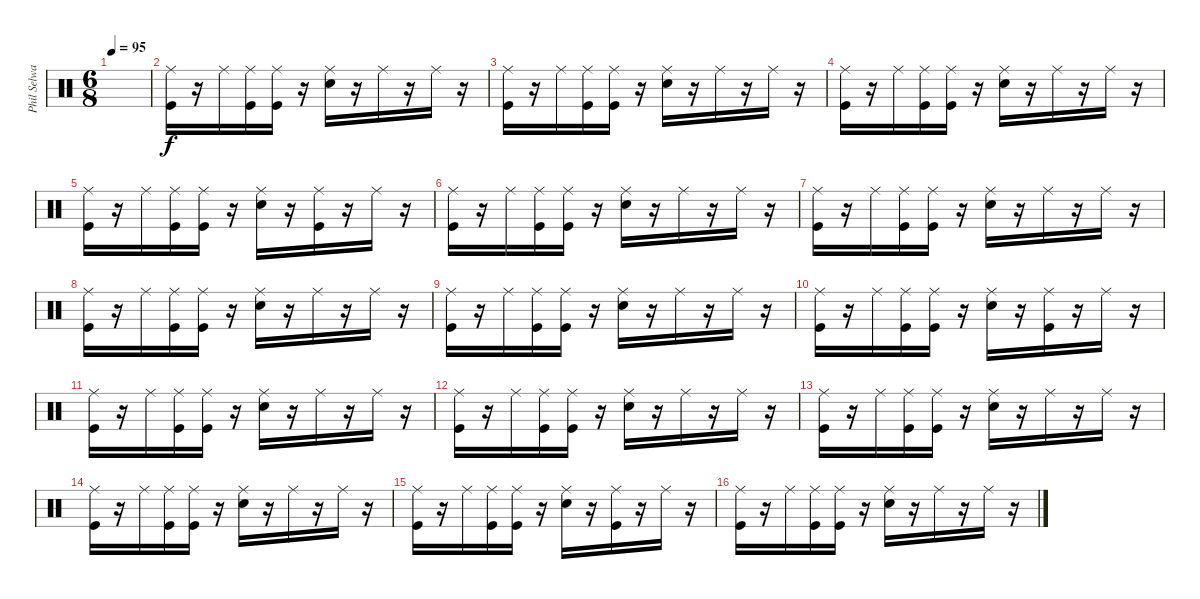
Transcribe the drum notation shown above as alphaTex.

\track ("Phil Selway (Percussions)" "Phil Selwa") {instrument percussion}
\staff {score}
\articulation defaults
\ts (6 8)
\tempo 95
\clef neutral
\ks c
|
("Ride (middle)" "Kick (hit)").16 r.16 "Ride (middle)".16 ("Ride (middle)" "Kick (hit)").16 ("Ride (middle)" "Kick (hit)").16 r.16 ("Ride (middle)" "Electric Snare (hit)").16 r.16 "Ride (middle)".16 r.16 "Ride (middle)".16 r.16 |
("Ride (middle)" "Kick (hit)").16 r.16 "Ride (middle)".16 ("Ride (middle)" "Kick (hit)").16 ("Ride (middle)" "Kick (hit)").16 r.16 ("Ride (middle)" "Electric Snare (hit)").16 r.16 "Ride (middle)".16 r.16 "Ride (middle)".16 r.16 |
("Ride (middle)" "Kick (hit)").16 r.16 "Ride (middle)".16 ("Ride (middle)" "Kick (hit)").16 ("Ride (middle)" "Kick (hit)").16 r.16 ("Ride (middle)" "Electric Snare (hit)").16 r.16 "Ride (middle)".16 r.16 "Ride (middle)".16 r.16 |
("Ride (middle)" "Kick (hit)").16 r.16 "Ride (middle)".16 ("Ride (middle)" "Kick (hit)").16 ("Ride (middle)" "Kick (hit)").16 r.16 ("Ride (middle)" "Electric Snare (hit)").16 r.16 ("Ride (middle)" "Kick (hit)").16 r.16 "Ride (middle)".16 r.16 |
("Ride (middle)" "Kick (hit)").16 r.16 "Ride (middle)".16 ("Ride (middle)" "Kick (hit)").16 ("Ride (middle)" "Kick (hit)").16 r.16 ("Ride (middle)" "Electric Snare (hit)").16 r.16 "Ride (middle)".16 r.16 "Ride (middle)".16 r.16 |
("Ride (middle)" "Kick (hit)").16 r.16 "Ride (middle)".16 ("Ride (middle)" "Kick (hit)").16 ("Ride (middle)" "Kick (hit)").16 r.16 ("Ride (middle)" "Electric Snare (hit)").16 r.16 "Ride (middle)".16 r.16 "Ride (middle)".16 r.16 |
("Ride (middle)" "Kick (hit)").16 r.16 "Ride (middle)".16 ("Ride (middle)" "Kick (hit)").16 ("Ride (middle)" "Kick (hit)").16 r.16 ("Ride (middle)" "Electric Snare (hit)").16 r.16 "Ride (middle)".16 r.16 "Ride (middle)".16 r.16 |
("Ride (middle)" "Kick (hit)").16 r.16 "Ride (middle)".16 ("Ride (middle)" "Kick (hit)").16 ("Ride (middle)" "Kick (hit)").16 r.16 ("Ride (middle)" "Electric Snare (hit)").16 r.16 "Ride (middle)".16 r.16 "Ride (middle)".16 r.16 |
("Ride (middle)" "Kick (hit)").16 r.16 "Ride (middle)".16 ("Ride (middle)" "Kick (hit)").16 ("Ride (middle)" "Kick (hit)").16 r.16 ("Ride (middle)" "Electric Snare (hit)").16 r.16 ("Ride (middle)" "Kick (hit)").16 r.16 "Ride (middle)".16 r.16 |
("Ride (middle)" "Kick (hit)").16 r.16 "Ride (middle)".16 ("Ride (middle)" "Kick (hit)").16 ("Ride (middle)" "Kick (hit)").16 r.16 ("Ride (middle)" "Electric Snare (hit)").16 r.16 "Ride (middle)".16 r.16 "Ride (middle)".16 r.16 |
("Ride (middle)" "Kick (hit)").16 r.16 "Ride (middle)".16 ("Ride (middle)" "Kick (hit)").16 ("Ride (middle)" "Kick (hit)").16 r.16 ("Ride (middle)" "Electric Snare (hit)").16 r.16 "Ride (middle)".16 r.16 "Ride (middle)".16 r.16 |
("Ride (middle)" "Kick (hit)").16 r.16 "Ride (middle)".16 ("Ride (middle)" "Kick (hit)").16 ("Ride (middle)" "Kick (hit)").16 r.16 ("Ride (middle)" "Electric Snare (hit)").16 r.16 "Ride (middle)".16 r.16 "Ride (middle)".16 r.16 |
("Ride (middle)" "Kick (hit)").16 r.16 "Ride (middle)".16 ("Ride (middle)" "Kick (hit)").16 ("Ride (middle)" "Kick (hit)").16 r.16 ("Ride (middle)" "Electric Snare (hit)").16 r.16 "Ride (middle)".16 r.16 "Ride (middle)".16 r.16 |
("Ride (middle)" "Kick (hit)").16 r.16 "Ride (middle)".16 ("Ride (middle)" "Kick (hit)").16 ("Ride (middle)" "Kick (hit)").16 r.16 ("Ride (middle)" "Electric Snare (hit)").16 r.16 ("Ride (middle)" "Kick (hit)").16 r.16 "Ride (middle)".16 r.16 |
("Ride (middle)" "Kick (hit)").16 r.16 "Ride (middle)".16 ("Ride (middle)" "Kick (hit)").16 ("Ride (middle)" "Kick (hit)").16 r.16 ("Ride (middle)" "Electric Snare (hit)").16 r.16 "Ride (middle)".16 r.16 "Ride (middle)".16 r.16
